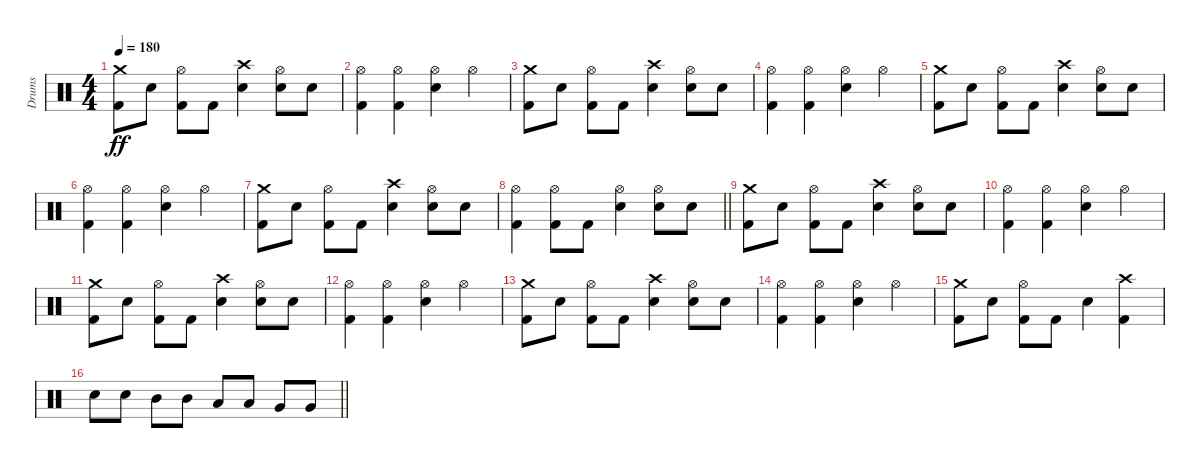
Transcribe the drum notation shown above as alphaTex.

\track ("Drums" "Drums") {instrument percussion}
\staff {score}
\articulation defaults
\ts (4 4)
\section ("" "")
\tempo 180
\clef neutral
\ks c
("Crash medium (hit)" "Kick (hit) 2").8{dy ff} "Electric Snare (hit)".8 ("Hi-Hat (open)" "Kick (hit) 2").8 "Kick (hit) 2".8 ("Crash high (hit)" "Electric Snare (hit)").4 ("Hi-Hat (open)" "Electric Snare (hit)").8 "Electric Snare (hit)".8 |
("Hi-Hat (open)" "Kick (hit) 2").4 ("Hi-Hat (open)" "Kick (hit) 2").4 ("Hi-Hat (open)" "Electric Snare (hit)").4 "Hi-Hat (open)".4 |
("Crash medium (hit)" "Kick (hit) 2").8 "Electric Snare (hit)".8 ("Hi-Hat (open)" "Kick (hit) 2").8 "Kick (hit) 2".8 ("Crash high (hit)" "Electric Snare (hit)").4 ("Hi-Hat (open)" "Electric Snare (hit)").8 "Electric Snare (hit)".8 |
("Hi-Hat (open)" "Kick (hit) 2").4 ("Hi-Hat (open)" "Kick (hit) 2").4 ("Hi-Hat (open)" "Electric Snare (hit)").4 "Hi-Hat (open)".4 |
("Crash medium (hit)" "Kick (hit) 2").8 "Electric Snare (hit)".8 ("Hi-Hat (open)" "Kick (hit) 2").8 "Kick (hit) 2".8 ("Crash high (hit)" "Electric Snare (hit)").4 ("Hi-Hat (open)" "Electric Snare (hit)").8 "Electric Snare (hit)".8 |
("Hi-Hat (open)" "Kick (hit) 2").4 ("Hi-Hat (open)" "Kick (hit) 2").4 ("Hi-Hat (open)" "Electric Snare (hit)").4 "Hi-Hat (open)".4 |
("Crash medium (hit)" "Kick (hit) 2").8 "Electric Snare (hit)".8 ("Hi-Hat (open)" "Kick (hit) 2").8 "Kick (hit) 2".8 ("Crash high (hit)" "Electric Snare (hit)").4 ("Hi-Hat (open)" "Electric Snare (hit)").8 "Electric Snare (hit)".8 |
\barLineRight lightlight
("Hi-Hat (open)" "Kick (hit) 2").4 ("Hi-Hat (open)" "Kick (hit) 2").8 "Kick (hit) 2".8 ("Hi-Hat (open)" "Electric Snare (hit)").4 ("Hi-Hat (open)" "Electric Snare (hit)").8 "Electric Snare (hit)".8 |
("Crash medium (hit)" "Kick (hit) 2").8 "Electric Snare (hit)".8 ("Hi-Hat (open)" "Kick (hit) 2").8 "Kick (hit) 2".8 ("Crash high (hit)" "Electric Snare (hit)").4 ("Hi-Hat (open)" "Electric Snare (hit)").8 "Electric Snare (hit)".8 |
("Hi-Hat (open)" "Kick (hit) 2").4 ("Hi-Hat (open)" "Kick (hit) 2").4 ("Hi-Hat (open)" "Electric Snare (hit)").4 "Hi-Hat (open)".4 |
("Crash medium (hit)" "Kick (hit) 2").8 "Electric Snare (hit)".8 ("Hi-Hat (open)" "Kick (hit) 2").8 "Kick (hit) 2".8 ("Crash high (hit)" "Electric Snare (hit)").4 ("Hi-Hat (open)" "Electric Snare (hit)").8 "Electric Snare (hit)".8 |
("Hi-Hat (open)" "Kick (hit) 2").4 ("Hi-Hat (open)" "Kick (hit) 2").4 ("Hi-Hat (open)" "Electric Snare (hit)").4 "Hi-Hat (open)".4 |
("Crash medium (hit)" "Kick (hit) 2").8 "Electric Snare (hit)".8 ("Hi-Hat (open)" "Kick (hit) 2").8 "Kick (hit) 2".8 ("Crash high (hit)" "Electric Snare (hit)").4 ("Hi-Hat (open)" "Electric Snare (hit)").8 "Electric Snare (hit)".8 |
("Hi-Hat (open)" "Kick (hit) 2").4 ("Hi-Hat (open)" "Kick (hit) 2").4 ("Hi-Hat (open)" "Electric Snare (hit)").4 "Hi-Hat (open)".4 |
("Crash medium (hit)" "Kick (hit) 2").8 "Electric Snare (hit)".8 ("Hi-Hat (open)" "Kick (hit) 2").8 "Kick (hit) 2".8 "Electric Snare (hit)".4 ("Crash high (hit)" "Kick (hit) 2").4 |
\barLineRight lightlight "Electric Snare (hit)".8 "Electric Snare (hit)".8 "Mid Tom (hit)".8 "Mid Tom (hit)".8 "Low Tom (hit)".8 "Low Tom (hit)".8 "Very Low Tom (hit)".8 "Very Low Tom (hit)".8
